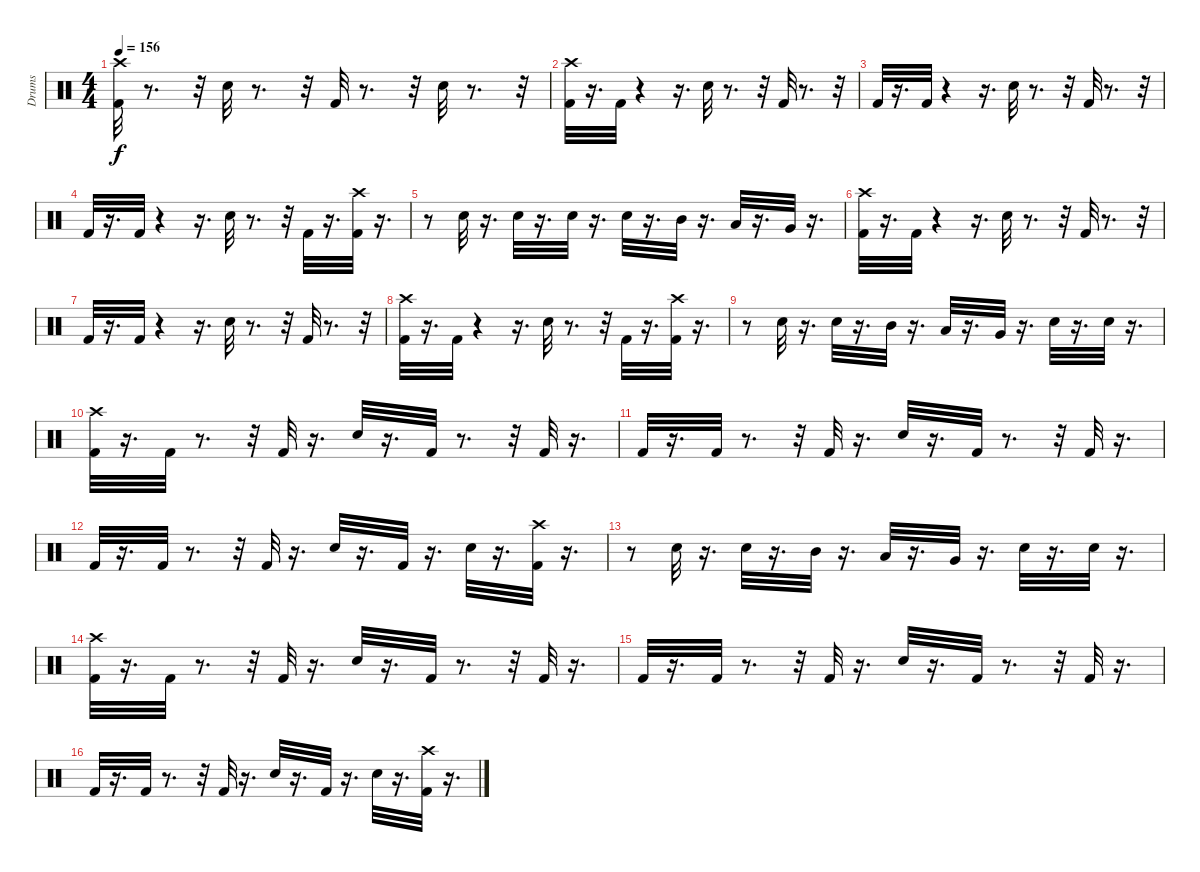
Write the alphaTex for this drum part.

\track ("Drums" "Drums") {instrument percussion}
\staff {score}
\articulation defaults
\ts (4 4)
\tempo 156
\clef neutral
\ks c
("Crash high (hit)" "Kick (hit) 2").32{dy f} r.8{d} r.32 "Snare (hit) 2".32 r.8{d} r.32 "Kick (hit) 2".32 r.8{d} r.32 "Snare (hit) 2".32 r.8{d} r.32 |
("Crash high (hit)" "Kick (hit) 2").32 r.16{d} "Kick (hit) 2".32 r.4 r.16{d} "Snare (hit) 2".32 r.8{d} r.32 "Kick (hit) 2".32 r.8{d} r.32 |
"Kick (hit) 2".32 r.16{d} "Kick (hit) 2".32 r.4 r.16{d} "Snare (hit) 2".32 r.8{d} r.32 "Kick (hit) 2".32 r.8{d} r.32 |
"Kick (hit) 2".32 r.16{d} "Kick (hit) 2".32 r.4 r.16{d} "Snare (hit) 2".32 r.8{d} r.32 "Kick (hit) 2".32 r.16{d} ("Crash high (hit)" "Kick (hit) 2").32 r.16{d} |
r.8 "Snare (hit) 2".32 r.16{d} "Snare (hit) 2".32 r.16{d} "Snare (hit) 2".32 r.16{d} "Snare (hit) 2".32 r.16{d} "Mid Tom (hit)".32 r.16{d} "Low Tom (hit)".32 r.16{d} "Very Low Tom (hit)".32 r.16{d} |
("Crash high (hit)" "Kick (hit) 2").32 r.16{d} "Kick (hit) 2".32 r.4 r.16{d} "Snare (hit) 2".32 r.8{d} r.32 "Kick (hit) 2".32 r.8{d} r.32 |
"Kick (hit) 2".32 r.16{d} "Kick (hit) 2".32 r.4 r.16{d} "Snare (hit) 2".32 r.8{d} r.32 "Kick (hit) 2".32 r.8{d} r.32 |
("Crash high (hit)" "Kick (hit) 2").32 r.16{d} "Kick (hit) 2".32 r.4 r.16{d} "Snare (hit) 2".32 r.8{d} r.32 "Kick (hit) 2".32 r.16{d} ("Crash high (hit)" "Kick (hit) 2").32 r.16{d} |
r.8 "Snare (hit) 2".32 r.16{d} "Snare (hit) 2".32 r.16{d} "Mid Tom (hit)".32 r.16{d} "Low Tom (hit)".32 r.16{d} "Very Low Tom (hit)".32 r.16{d} "Snare (hit) 2".32 r.16{d} "Snare (hit) 2".32 r.16{d} |
("Crash high (hit)" "Kick (hit) 2").32 r.16{d} "Kick (hit) 2".32 r.8{d} r.32 "Kick (hit) 2".32 r.16{d} "Snare (hit) 2".32 r.16{d} "Kick (hit) 2".32 r.8{d} r.32 "Kick (hit) 2".32 r.16{d} |
"Kick (hit) 2".32 r.16{d} "Kick (hit) 2".32 r.8{d} r.32 "Kick (hit) 2".32 r.16{d} "Snare (hit) 2".32 r.16{d} "Kick (hit) 2".32 r.8{d} r.32 "Kick (hit) 2".32 r.16{d} |
"Kick (hit) 2".32 r.16{d} "Kick (hit) 2".32 r.8{d} r.32 "Kick (hit) 2".32 r.16{d} "Snare (hit) 2".32 r.16{d} "Kick (hit) 2".32 r.16{d} "Snare (hit) 2".32 r.16{d} ("Kick (hit) 2" "Crash high (hit)").32 r.16{d} |
r.8 "Snare (hit) 2".32 r.16{d} "Snare (hit) 2".32 r.16{d} "Mid Tom (hit)".32 r.16{d} "Low Tom (hit)".32 r.16{d} "Very Low Tom (hit)".32 r.16{d} "Snare (hit) 2".32 r.16{d} "Snare (hit) 2".32 r.16{d} |
("Crash high (hit)" "Kick (hit) 2").32 r.16{d} "Kick (hit) 2".32 r.8{d} r.32 "Kick (hit) 2".32 r.16{d} "Snare (hit) 2".32 r.16{d} "Kick (hit) 2".32 r.8{d} r.32 "Kick (hit) 2".32 r.16{d} |
"Kick (hit) 2".32 r.16{d} "Kick (hit) 2".32 r.8{d} r.32 "Kick (hit) 2".32 r.16{d} "Snare (hit) 2".32 r.16{d} "Kick (hit) 2".32 r.8{d} r.32 "Kick (hit) 2".32 r.16{d} |
"Kick (hit) 2".32 r.16{d} "Kick (hit) 2".32 r.8{d} r.32 "Kick (hit) 2".32 r.16{d} "Snare (hit) 2".32 r.16{d} "Kick (hit) 2".32 r.16{d} "Snare (hit) 2".32 r.16{d} ("Kick (hit) 2" "Crash high (hit)").32 r.16{d}
